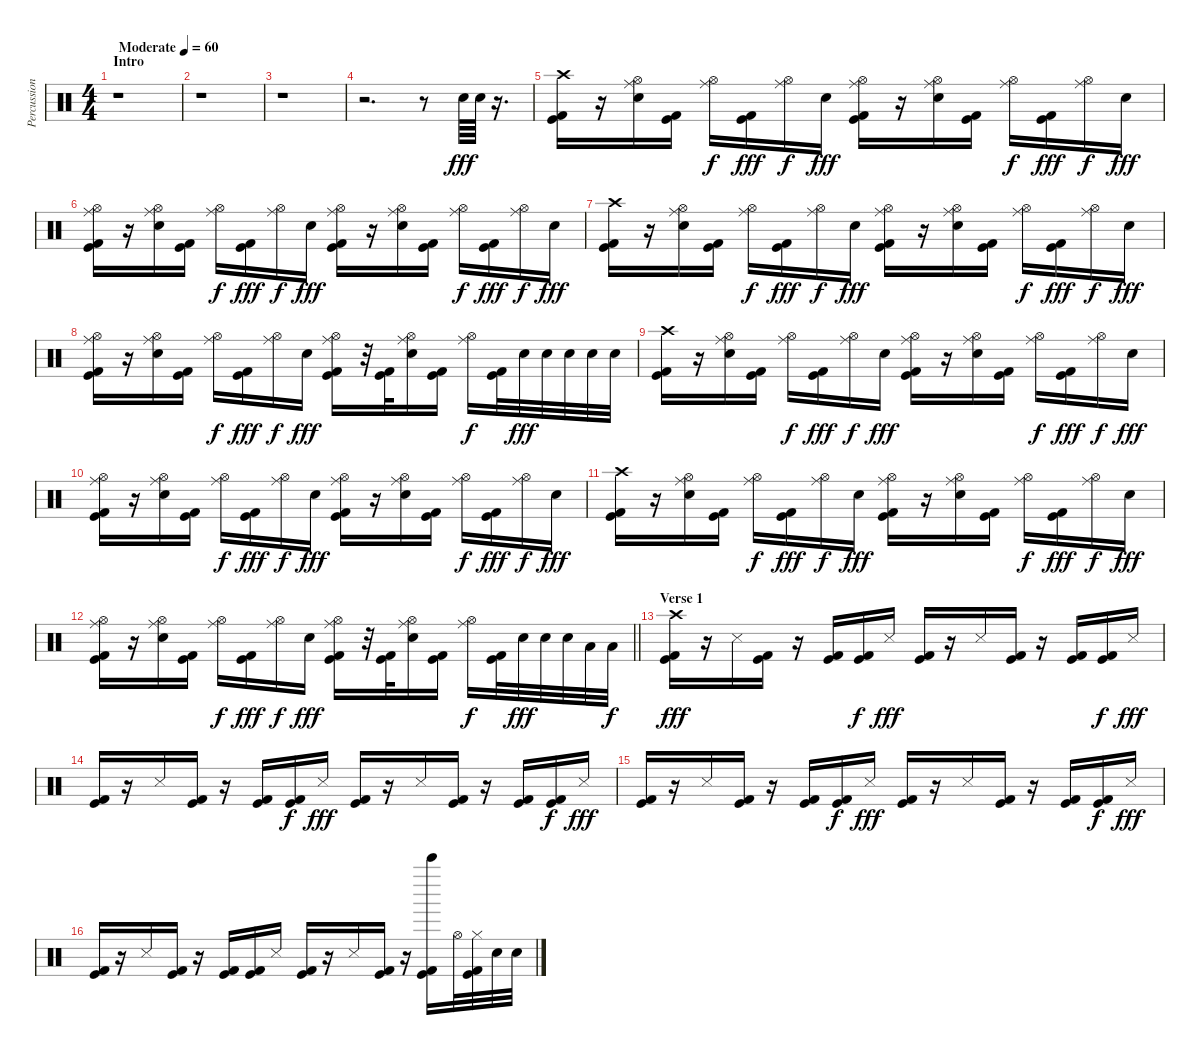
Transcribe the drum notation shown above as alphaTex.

\track ("Percussion" "Percussion") {instrument percussion}
\staff {score}
\articulation defaults
\ts (4 4)
\section ("" "Intro")
\tempo (60 "Moderate")
\clef neutral
\ks c
r.1{dy fff} |
r.1 |
r.1 |
r.2{d} r.8 "Electric Snare (hit)".64 "Electric Snare (hit)".64 r.16{d} |
("Crash high (hit)" "Kick (hit)" "Kick (hit) 2").16 r.16 ("Hi-Hat (open)" "Ride (middle)" "Electric Snare (hit)").16 ("Kick (hit)" "Kick (hit) 2").16 ("Hi-Hat (open)" "Ride (middle)").16{dy f} ("Kick (hit)" "Kick (hit) 2").16{dy fff} ("Hi-Hat (open)" "Ride (middle)").16{dy f} "Electric Snare (hit)".16{dy fff} ("Hi-Hat (open)" "Ride (middle)" "Kick (hit)" "Kick (hit) 2").16 r.16 ("Hi-Hat (open)" "Ride (middle)" "Electric Snare (hit)").16 ("Kick (hit)" "Kick (hit) 2").16 ("Hi-Hat (open)" "Ride (middle)").16{dy f} ("Kick (hit)" "Kick (hit) 2").16{dy fff} ("Hi-Hat (open)" "Ride (middle)").16{dy f} "Electric Snare (hit)".16{dy fff} |
("Hi-Hat (open)" "Ride (middle)" "Kick (hit)" "Kick (hit) 2").16 r.16 ("Hi-Hat (open)" "Ride (middle)" "Electric Snare (hit)").16 ("Kick (hit)" "Kick (hit) 2").16 ("Hi-Hat (open)" "Ride (middle)").16{dy f} ("Kick (hit)" "Kick (hit) 2").16{dy fff} ("Hi-Hat (open)" "Ride (middle)").16{dy f} "Electric Snare (hit)".16{dy fff} ("Hi-Hat (open)" "Ride (middle)" "Kick (hit)" "Kick (hit) 2").16 r.16 ("Hi-Hat (open)" "Ride (middle)" "Electric Snare (hit)").16 ("Kick (hit)" "Kick (hit) 2").16 ("Hi-Hat (open)" "Ride (middle)").16{dy f} ("Kick (hit)" "Kick (hit) 2").16{dy fff} ("Hi-Hat (open)" "Ride (middle)").16{dy f} "Electric Snare (hit)".16{dy fff} |
("Crash high (hit)" "Kick (hit)" "Kick (hit) 2").16 r.16 ("Hi-Hat (open)" "Ride (middle)" "Electric Snare (hit)").16 ("Kick (hit)" "Kick (hit) 2").16 ("Hi-Hat (open)" "Ride (middle)").16{dy f} ("Kick (hit)" "Kick (hit) 2").16{dy fff} ("Hi-Hat (open)" "Ride (middle)").16{dy f} "Electric Snare (hit)".16{dy fff} ("Hi-Hat (open)" "Ride (middle)" "Kick (hit)" "Kick (hit) 2").16 r.16 ("Hi-Hat (open)" "Ride (middle)" "Electric Snare (hit)").16 ("Kick (hit)" "Kick (hit) 2").16 ("Hi-Hat (open)" "Ride (middle)").16{dy f} ("Kick (hit)" "Kick (hit) 2").16{dy fff} ("Hi-Hat (open)" "Ride (middle)").16{dy f} "Electric Snare (hit)".16{dy fff} |
("Hi-Hat (open)" "Ride (middle)" "Kick (hit)" "Kick (hit) 2").16 r.16 ("Hi-Hat (open)" "Ride (middle)" "Electric Snare (hit)").16 ("Kick (hit)" "Kick (hit) 2").16 ("Hi-Hat (open)" "Ride (middle)").16{dy f} ("Kick (hit)" "Kick (hit) 2").16{dy fff} ("Hi-Hat (open)" "Ride (middle)").16{dy f} "Electric Snare (hit)".16{dy fff} ("Hi-Hat (open)" "Ride (middle)" "Kick (hit)" "Kick (hit) 2").16 r.32 ("Kick (hit)" "Kick (hit) 2").32 ("Hi-Hat (open)" "Ride (middle)" "Electric Snare (hit)").16 ("Kick (hit)" "Kick (hit) 2").16 ("Hi-Hat (open)" "Ride (middle)").16{dy f} ("Kick (hit)" "Kick (hit) 2").32 "Electric Snare (hit)".32{dy fff} "Electric Snare (hit)".32 "Electric Snare (hit)".32 "Electric Snare (hit)".32 "Electric Snare (hit)".32 |
("Crash high (hit)" "Kick (hit)" "Kick (hit) 2").16 r.16 ("Hi-Hat (open)" "Ride (middle)" "Electric Snare (hit)").16 ("Kick (hit)" "Kick (hit) 2").16 ("Hi-Hat (open)" "Ride (middle)").16{dy f} ("Kick (hit)" "Kick (hit) 2").16{dy fff} ("Hi-Hat (open)" "Ride (middle)").16{dy f} "Electric Snare (hit)".16{dy fff} ("Hi-Hat (open)" "Ride (middle)" "Kick (hit)" "Kick (hit) 2").16 r.16 ("Hi-Hat (open)" "Ride (middle)" "Electric Snare (hit)").16 ("Kick (hit)" "Kick (hit) 2").16 ("Hi-Hat (open)" "Ride (middle)").16{dy f} ("Kick (hit)" "Kick (hit) 2").16{dy fff} ("Hi-Hat (open)" "Ride (middle)").16{dy f} "Electric Snare (hit)".16{dy fff} |
("Hi-Hat (open)" "Ride (middle)" "Kick (hit)" "Kick (hit) 2").16 r.16 ("Hi-Hat (open)" "Ride (middle)" "Electric Snare (hit)").16 ("Kick (hit)" "Kick (hit) 2").16 ("Hi-Hat (open)" "Ride (middle)").16{dy f} ("Kick (hit)" "Kick (hit) 2").16{dy fff} ("Hi-Hat (open)" "Ride (middle)").16{dy f} "Electric Snare (hit)".16{dy fff} ("Hi-Hat (open)" "Ride (middle)" "Kick (hit)" "Kick (hit) 2").16 r.16 ("Hi-Hat (open)" "Ride (middle)" "Electric Snare (hit)").16 ("Kick (hit)" "Kick (hit) 2").16 ("Hi-Hat (open)" "Ride (middle)").16{dy f} ("Kick (hit)" "Kick (hit) 2").16{dy fff} ("Hi-Hat (open)" "Ride (middle)").16{dy f} "Electric Snare (hit)".16{dy fff} |
("Crash high (hit)" "Kick (hit)" "Kick (hit) 2").16 r.16 ("Hi-Hat (open)" "Ride (middle)" "Electric Snare (hit)").16 ("Kick (hit)" "Kick (hit) 2").16 ("Hi-Hat (open)" "Ride (middle)").16{dy f} ("Kick (hit)" "Kick (hit) 2").16{dy fff} ("Hi-Hat (open)" "Ride (middle)").16{dy f} "Electric Snare (hit)".16{dy fff} ("Hi-Hat (open)" "Ride (middle)" "Kick (hit)" "Kick (hit) 2").16 r.16 ("Hi-Hat (open)" "Ride (middle)" "Electric Snare (hit)").16 ("Kick (hit)" "Kick (hit) 2").16 ("Hi-Hat (open)" "Ride (middle)").16{dy f} ("Kick (hit)" "Kick (hit) 2").16{dy fff} ("Hi-Hat (open)" "Ride (middle)").16{dy f} "Electric Snare (hit)".16{dy fff} |
\barLineRight lightlight
("Hi-Hat (open)" "Ride (middle)" "Kick (hit)" "Kick (hit) 2").16 r.16 ("Hi-Hat (open)" "Ride (middle)" "Electric Snare (hit)").16 ("Kick (hit)" "Kick (hit) 2").16 ("Hi-Hat (open)" "Ride (middle)").16{dy f} ("Kick (hit)" "Kick (hit) 2").16{dy fff} ("Hi-Hat (open)" "Ride (middle)").16{dy f} "Electric Snare (hit)".16{dy fff} ("Hi-Hat (open)" "Ride (middle)" "Kick (hit)" "Kick (hit) 2").16 r.32 ("Kick (hit)" "Kick (hit) 2").32 ("Hi-Hat (open)" "Ride (middle)" "Electric Snare (hit)").16 ("Kick (hit)" "Kick (hit) 2").16 ("Hi-Hat (open)" "Ride (middle)").16{dy f} ("Kick (hit)" "Kick (hit) 2").32 "Electric Snare (hit)".32{dy fff} "Electric Snare (hit)".32 "Electric Snare (hit)".32 "Low Tom (hit)".32 "Low Floor Tom (hit)".32{dy f} |
\section ("" "Verse 1")
("Crash high (hit)" "Kick (hit)" "Kick (hit) 2").16{dy fff} r.16 "Metronome (hit)".16 ("Kick (hit)" "Kick (hit) 2").16 r.16 ("Kick (hit)" "Kick (hit) 2").16 ("Kick (hit)" "Kick (hit) 2").16{dy f} "Metronome (hit)".16{dy fff} ("Kick (hit)" "Kick (hit) 2").16 r.16 "Metronome (hit)".16 ("Kick (hit)" "Kick (hit) 2").16 r.16 ("Kick (hit)" "Kick (hit) 2").16 ("Kick (hit)" "Kick (hit) 2").16{dy f} "Metronome (hit)".16{dy fff} |
("Kick (hit)" "Kick (hit) 2").16 r.16 "Metronome (hit)".16 ("Kick (hit)" "Kick (hit) 2").16 r.16 ("Kick (hit)" "Kick (hit) 2").16 ("Kick (hit)" "Kick (hit) 2").16{dy f} "Metronome (hit)".16{dy fff} ("Kick (hit)" "Kick (hit) 2").16 r.16 "Metronome (hit)".16 ("Kick (hit)" "Kick (hit) 2").16 r.16 ("Kick (hit)" "Kick (hit) 2").16 ("Kick (hit)" "Kick (hit) 2").16{dy f} "Metronome (hit)".16{dy fff} |
("Kick (hit)" "Kick (hit) 2").16 r.16 "Metronome (hit)".16 ("Kick (hit)" "Kick (hit) 2").16 r.16 ("Kick (hit)" "Kick (hit) 2").16 ("Kick (hit)" "Kick (hit) 2").16{dy f} "Metronome (hit)".16{dy fff} ("Kick (hit)" "Kick (hit) 2").16 r.16 "Metronome (hit)".16 ("Kick (hit)" "Kick (hit) 2").16 r.16 ("Kick (hit)" "Kick (hit) 2").16 ("Kick (hit)" "Kick (hit) 2").16{dy f} "Metronome (hit)".16{dy fff} |
("Kick (hit)" "Kick (hit) 2").16 r.16 "Metronome (hit)".16 ("Kick (hit)" "Kick (hit) 2").16 r.16 ("Kick (hit)" "Kick (hit) 2").16 ("Kick (hit)" "Kick (hit) 2").16 "Metronome (hit)".16 ("Kick (hit)" "Kick (hit) 2").16 r.16 "Metronome (hit)".16 ("Kick (hit)" "Kick (hit) 2").16 r.16 ("Bell Tree (hit)" "Kick (hit)" "Kick (hit) 2").16 "Hi-Hat (open)".32 ("Hi-Hat (closed)" "Kick (hit)" "Kick (hit) 2").32 "Electric Snare (hit)".32 "Electric Snare (hit)".32
